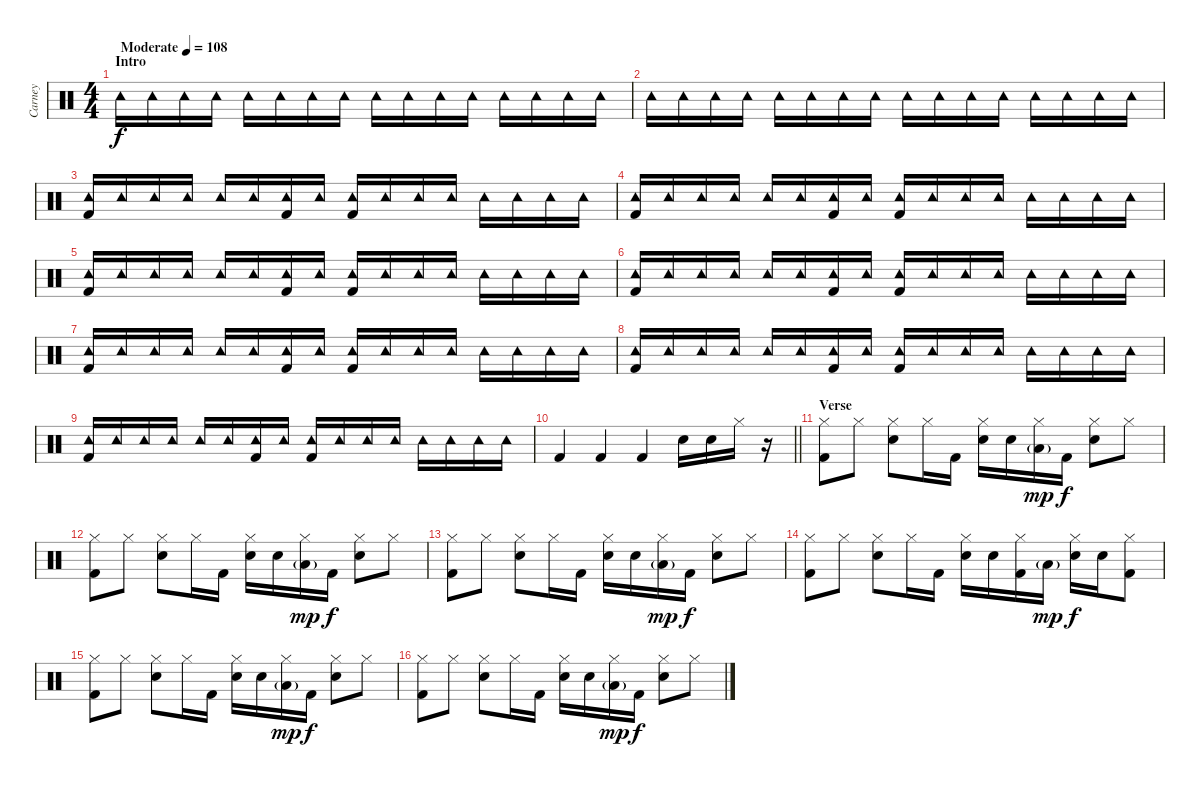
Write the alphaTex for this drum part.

\track ("Carney" "Carney") {instrument percussion}
\staff {score}
\articulation defaults
\ts (4 4)
\section ("" "Intro")
\tempo (108 "Moderate")
\clef neutral
\ks c "Tambourine (hit)".16{dy f} "Tambourine (hit)".16 "Tambourine (hit)".16 "Tambourine (hit)".16 "Tambourine (hit)".16 "Tambourine (hit)".16 "Tambourine (hit)".16 "Tambourine (hit)".16 "Tambourine (hit)".16 "Tambourine (hit)".16 "Tambourine (hit)".16 "Tambourine (hit)".16 "Tambourine (hit)".16 "Tambourine (hit)".16 "Tambourine (hit)".16 "Tambourine (hit)".16
|
"Tambourine (hit)".16 "Tambourine (hit)".16 "Tambourine (hit)".16 "Tambourine (hit)".16 "Tambourine (hit)".16 "Tambourine (hit)".16 "Tambourine (hit)".16 "Tambourine (hit)".16 "Tambourine (hit)".16 "Tambourine (hit)".16 "Tambourine (hit)".16 "Tambourine (hit)".16 "Tambourine (hit)".16 "Tambourine (hit)".16 "Tambourine (hit)".16 "Tambourine (hit)".16 |
("Tambourine (hit)" "Kick (hit) 2").16 "Tambourine (hit)".16 "Tambourine (hit)".16 "Tambourine (hit)".16 "Tambourine (hit)".16 "Tambourine (hit)".16 ("Tambourine (hit)" "Kick (hit) 2").16 "Tambourine (hit)".16 ("Tambourine (hit)" "Kick (hit) 2").16 "Tambourine (hit)".16 "Tambourine (hit)".16 "Tambourine (hit)".16 "Tambourine (hit)".16 "Tambourine (hit)".16 "Tambourine (hit)".16 "Tambourine (hit)".16 |
("Tambourine (hit)" "Kick (hit) 2").16 "Tambourine (hit)".16 "Tambourine (hit)".16 "Tambourine (hit)".16 "Tambourine (hit)".16 "Tambourine (hit)".16 ("Tambourine (hit)" "Kick (hit) 2").16 "Tambourine (hit)".16 ("Tambourine (hit)" "Kick (hit) 2").16 "Tambourine (hit)".16 "Tambourine (hit)".16 "Tambourine (hit)".16 "Tambourine (hit)".16 "Tambourine (hit)".16 "Tambourine (hit)".16 "Tambourine (hit)".16 |
("Tambourine (hit)" "Kick (hit) 2").16 "Tambourine (hit)".16 "Tambourine (hit)".16 "Tambourine (hit)".16 "Tambourine (hit)".16 "Tambourine (hit)".16 ("Tambourine (hit)" "Kick (hit) 2").16 "Tambourine (hit)".16 ("Tambourine (hit)" "Kick (hit) 2").16 "Tambourine (hit)".16 "Tambourine (hit)".16 "Tambourine (hit)".16 "Tambourine (hit)".16 "Tambourine (hit)".16 "Tambourine (hit)".16 "Tambourine (hit)".16 |
("Tambourine (hit)" "Kick (hit) 2").16 "Tambourine (hit)".16 "Tambourine (hit)".16 "Tambourine (hit)".16 "Tambourine (hit)".16 "Tambourine (hit)".16 ("Tambourine (hit)" "Kick (hit) 2").16 "Tambourine (hit)".16 ("Tambourine (hit)" "Kick (hit) 2").16 "Tambourine (hit)".16 "Tambourine (hit)".16 "Tambourine (hit)".16 "Tambourine (hit)".16 "Tambourine (hit)".16 "Tambourine (hit)".16 "Tambourine (hit)".16 |
("Tambourine (hit)" "Kick (hit) 2").16 "Tambourine (hit)".16 "Tambourine (hit)".16 "Tambourine (hit)".16 "Tambourine (hit)".16 "Tambourine (hit)".16 ("Tambourine (hit)" "Kick (hit) 2").16 "Tambourine (hit)".16 ("Tambourine (hit)" "Kick (hit) 2").16 "Tambourine (hit)".16 "Tambourine (hit)".16 "Tambourine (hit)".16 "Tambourine (hit)".16 "Tambourine (hit)".16 "Tambourine (hit)".16 "Tambourine (hit)".16 |
("Tambourine (hit)" "Kick (hit) 2").16 "Tambourine (hit)".16 "Tambourine (hit)".16 "Tambourine (hit)".16 "Tambourine (hit)".16 "Tambourine (hit)".16 ("Tambourine (hit)" "Kick (hit) 2").16 "Tambourine (hit)".16 ("Tambourine (hit)" "Kick (hit) 2").16 "Tambourine (hit)".16 "Tambourine (hit)".16 "Tambourine (hit)".16 "Tambourine (hit)".16 "Tambourine (hit)".16 "Tambourine (hit)".16 "Tambourine (hit)".16 |
("Tambourine (hit)" "Kick (hit) 2").16 "Tambourine (hit)".16 "Tambourine (hit)".16 "Tambourine (hit)".16 "Tambourine (hit)".16 "Tambourine (hit)".16 ("Tambourine (hit)" "Kick (hit) 2").16 "Tambourine (hit)".16 ("Tambourine (hit)" "Kick (hit) 2").16 "Tambourine (hit)".16 "Tambourine (hit)".16 "Tambourine (hit)".16 "Tambourine (hit)".16 "Tambourine (hit)".16 "Tambourine (hit)".16 "Tambourine (hit)".16 |
\barLineRight lightlight "Kick (hit) 2".4 "Kick (hit) 2".4 "Kick (hit) 2".4 "Snare (hit) 2".16 "Snare (hit) 2".16 "Hi-Hat (closed)".16
r.16 |
\section ("" "Verse")
("Hi-Hat (closed)" "Kick (hit) 2").8 "Hi-Hat (closed)".8 ("Hi-Hat (closed)" "Snare (hit) 2").8 "Hi-Hat (closed)".16 "Kick (hit) 2".16 ("Hi-Hat (closed)" "Snare (hit) 2").16 "Snare (hit) 2".16 ("Hi-Hat (closed)" "Low Floor Tom (hit)"{g}).16{dy mp} "Kick (hit) 2".16{dy f} ("Hi-Hat (closed)" "Snare (hit) 2").8 "Hi-Hat (closed)".8 |
("Hi-Hat (closed)" "Kick (hit) 2").8 "Hi-Hat (closed)".8 ("Hi-Hat (closed)" "Snare (hit) 2").8 "Hi-Hat (closed)".16 "Kick (hit) 2".16 ("Hi-Hat (closed)" "Snare (hit) 2").16 "Snare (hit) 2".16 ("Hi-Hat (closed)" "Low Floor Tom (hit)"{g}).16{dy mp} "Kick (hit) 2".16{dy f} ("Hi-Hat (closed)" "Snare (hit) 2").8 "Hi-Hat (closed)".8 |
("Hi-Hat (closed)" "Kick (hit) 2").8 "Hi-Hat (closed)".8 ("Hi-Hat (closed)" "Snare (hit) 2").8 "Hi-Hat (closed)".16 "Kick (hit) 2".16 ("Hi-Hat (closed)" "Snare (hit) 2").16 "Snare (hit) 2".16 ("Hi-Hat (closed)" "Low Floor Tom (hit)"{g}).16{dy mp} "Kick (hit) 2".16{dy f} ("Hi-Hat (closed)" "Snare (hit) 2").8 "Hi-Hat (closed)".8 |
("Hi-Hat (closed)" "Kick (hit) 2").8 "Hi-Hat (closed)".8 ("Hi-Hat (closed)" "Snare (hit) 2").8 "Hi-Hat (closed)".16 "Kick (hit) 2".16 ("Hi-Hat (closed)" "Snare (hit) 2").16 "Snare (hit) 2".16 ("Hi-Hat (closed)" "Kick (hit) 2").16 "Low Floor Tom (hit)"{g}.16{dy mp} ("Hi-Hat (closed)" "Snare (hit) 2").16{dy f} "Snare (hit) 2".16 ("Hi-Hat (closed)" "Kick (hit) 2").8 |
("Hi-Hat (closed)" "Kick (hit) 2").8 "Hi-Hat (closed)".8 ("Hi-Hat (closed)" "Snare (hit) 2").8 "Hi-Hat (closed)".16 "Kick (hit) 2".16 ("Hi-Hat (closed)" "Snare (hit) 2").16 "Snare (hit) 2".16 ("Hi-Hat (closed)" "Low Floor Tom (hit)"{g}).16{dy mp} "Kick (hit) 2".16{dy f} ("Hi-Hat (closed)" "Snare (hit) 2").8 "Hi-Hat (closed)".8 |
("Hi-Hat (closed)" "Kick (hit) 2").8 "Hi-Hat (closed)".8 ("Hi-Hat (closed)" "Snare (hit) 2").8 "Hi-Hat (closed)".16 "Kick (hit) 2".16 ("Hi-Hat (closed)" "Snare (hit) 2").16 "Snare (hit) 2".16 ("Hi-Hat (closed)" "Low Floor Tom (hit)"{g}).16{dy mp} "Kick (hit) 2".16{dy f} ("Hi-Hat (closed)" "Snare (hit) 2").8 "Hi-Hat (closed)".8
